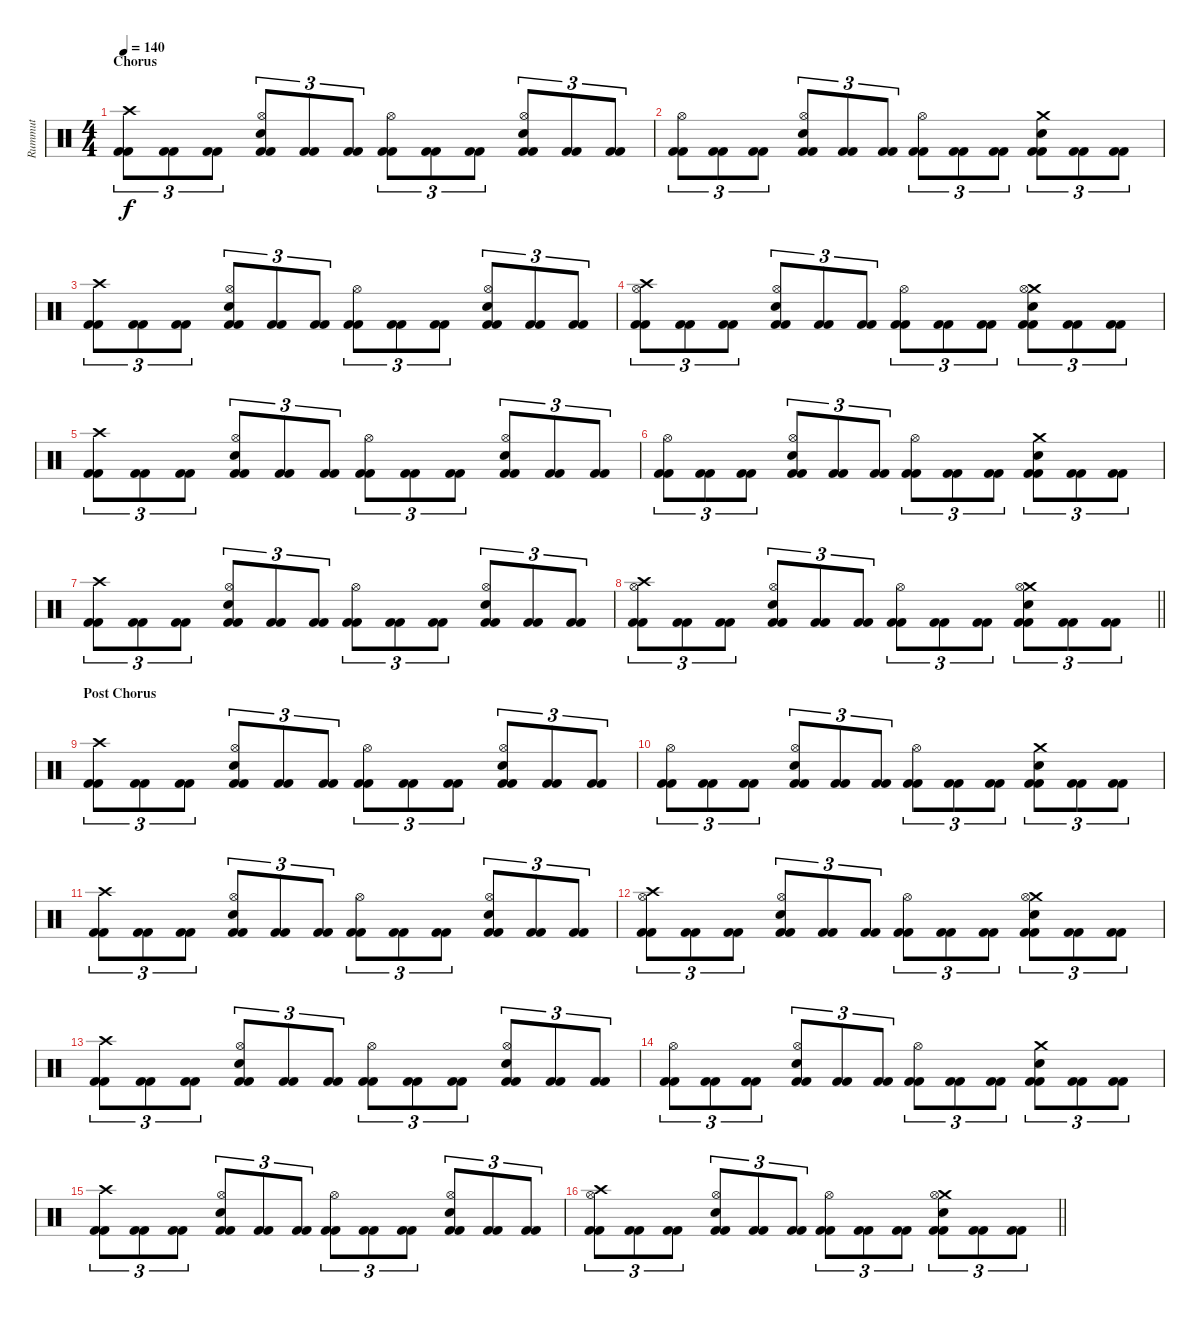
\track ("Rummut" "Rummut") {instrument percussion}
\staff {score}
\articulation defaults
\ts (4 4)
\section ("" "Chorus")
\tempo 140
\clef neutral
\ks c
("Crash high (hit)" "Kick (hit) 2" "Kick (hit) 2").8{tu (3 2) dy f} ("Kick (hit) 2" "Kick (hit) 2").8{tu (3 2)} ("Kick (hit) 2" "Kick (hit) 2").8{tu (3 2)} ("Hi-Hat (open)" "Electric Snare (hit)" "Kick (hit) 2" "Kick (hit) 2").8{tu (3 2)} ("Kick (hit) 2" "Kick (hit) 2").8{tu (3 2)} ("Kick (hit) 2" "Kick (hit) 2").8{tu (3 2)} ("Hi-Hat (open)" "Kick (hit) 2" "Kick (hit) 2").8{tu (3 2)} ("Kick (hit) 2" "Kick (hit) 2").8{tu (3 2)} ("Kick (hit) 2" "Kick (hit) 2").8{tu (3 2)} ("Hi-Hat (open)" "Electric Snare (hit)" "Kick (hit) 2" "Kick (hit) 2").8{tu (3 2)} ("Kick (hit) 2" "Kick (hit) 2").8{tu (3 2)} ("Kick (hit) 2" "Kick (hit) 2").8{tu (3 2)} |
("Hi-Hat (open)" "Kick (hit) 2" "Kick (hit) 2").8{tu (3 2)} ("Kick (hit) 2" "Kick (hit) 2").8{tu (3 2)} ("Kick (hit) 2" "Kick (hit) 2").8{tu (3 2)} ("Hi-Hat (open)" "Electric Snare (hit)" "Kick (hit) 2" "Kick (hit) 2").8{tu (3 2)} ("Kick (hit) 2" "Kick (hit) 2").8{tu (3 2)} ("Kick (hit) 2" "Kick (hit) 2").8{tu (3 2)} ("Hi-Hat (open)" "Kick (hit) 2" "Kick (hit) 2").8{tu (3 2)} ("Kick (hit) 2" "Kick (hit) 2").8{tu (3 2)} ("Kick (hit) 2" "Kick (hit) 2").8{tu (3 2)} ("Crash medium (hit)" "Electric Snare (hit)" "Kick (hit) 2" "Kick (hit) 2").8{tu (3 2)} ("Kick (hit) 2" "Kick (hit) 2").8{tu (3 2)} ("Kick (hit) 2" "Kick (hit) 2").8{tu (3 2)} |
("Crash high (hit)" "Kick (hit) 2" "Kick (hit) 2").8{tu (3 2)} ("Kick (hit) 2" "Kick (hit) 2").8{tu (3 2)} ("Kick (hit) 2" "Kick (hit) 2").8{tu (3 2)} ("Hi-Hat (open)" "Electric Snare (hit)" "Kick (hit) 2" "Kick (hit) 2").8{tu (3 2)} ("Kick (hit) 2" "Kick (hit) 2").8{tu (3 2)} ("Kick (hit) 2" "Kick (hit) 2").8{tu (3 2)} ("Hi-Hat (open)" "Kick (hit) 2" "Kick (hit) 2").8{tu (3 2)} ("Kick (hit) 2" "Kick (hit) 2").8{tu (3 2)} ("Kick (hit) 2" "Kick (hit) 2").8{tu (3 2)} ("Hi-Hat (open)" "Electric Snare (hit)" "Kick (hit) 2" "Kick (hit) 2").8{tu (3 2)} ("Kick (hit) 2" "Kick (hit) 2").8{tu (3 2)} ("Kick (hit) 2" "Kick (hit) 2").8{tu (3 2)} |
("Crash high (hit)" "Hi-Hat (open)" "Kick (hit) 2" "Kick (hit) 2").8{tu (3 2)} ("Kick (hit) 2" "Kick (hit) 2").8{tu (3 2)} ("Kick (hit) 2" "Kick (hit) 2").8{tu (3 2)} ("Hi-Hat (open)" "Electric Snare (hit)" "Kick (hit) 2" "Kick (hit) 2").8{tu (3 2)} ("Kick (hit) 2" "Kick (hit) 2").8{tu (3 2)} ("Kick (hit) 2" "Kick (hit) 2").8{tu (3 2)} ("Hi-Hat (open)" "Kick (hit) 2" "Kick (hit) 2").8{tu (3 2)} ("Kick (hit) 2" "Kick (hit) 2").8{tu (3 2)} ("Kick (hit) 2" "Kick (hit) 2").8{tu (3 2)} ("Crash medium (hit)" "Hi-Hat (open)" "Electric Snare (hit)" "Kick (hit) 2" "Kick (hit) 2").8{tu (3 2)} ("Kick (hit) 2" "Kick (hit) 2").8{tu (3 2)} ("Kick (hit) 2" "Kick (hit) 2").8{tu (3 2)} |
("Crash high (hit)" "Kick (hit) 2" "Kick (hit) 2").8{tu (3 2)} ("Kick (hit) 2" "Kick (hit) 2").8{tu (3 2)} ("Kick (hit) 2" "Kick (hit) 2").8{tu (3 2)} ("Hi-Hat (open)" "Electric Snare (hit)" "Kick (hit) 2" "Kick (hit) 2").8{tu (3 2)} ("Kick (hit) 2" "Kick (hit) 2").8{tu (3 2)} ("Kick (hit) 2" "Kick (hit) 2").8{tu (3 2)} ("Hi-Hat (open)" "Kick (hit) 2" "Kick (hit) 2").8{tu (3 2)} ("Kick (hit) 2" "Kick (hit) 2").8{tu (3 2)} ("Kick (hit) 2" "Kick (hit) 2").8{tu (3 2)} ("Hi-Hat (open)" "Electric Snare (hit)" "Kick (hit) 2" "Kick (hit) 2").8{tu (3 2)} ("Kick (hit) 2" "Kick (hit) 2").8{tu (3 2)} ("Kick (hit) 2" "Kick (hit) 2").8{tu (3 2)} |
("Hi-Hat (open)" "Kick (hit) 2" "Kick (hit) 2").8{tu (3 2)} ("Kick (hit) 2" "Kick (hit) 2").8{tu (3 2)} ("Kick (hit) 2" "Kick (hit) 2").8{tu (3 2)} ("Hi-Hat (open)" "Electric Snare (hit)" "Kick (hit) 2" "Kick (hit) 2").8{tu (3 2)} ("Kick (hit) 2" "Kick (hit) 2").8{tu (3 2)} ("Kick (hit) 2" "Kick (hit) 2").8{tu (3 2)} ("Hi-Hat (open)" "Kick (hit) 2" "Kick (hit) 2").8{tu (3 2)} ("Kick (hit) 2" "Kick (hit) 2").8{tu (3 2)} ("Kick (hit) 2" "Kick (hit) 2").8{tu (3 2)} ("Crash medium (hit)" "Electric Snare (hit)" "Kick (hit) 2" "Kick (hit) 2").8{tu (3 2)} ("Kick (hit) 2" "Kick (hit) 2").8{tu (3 2)} ("Kick (hit) 2" "Kick (hit) 2").8{tu (3 2)} |
("Crash high (hit)" "Kick (hit) 2" "Kick (hit) 2").8{tu (3 2)} ("Kick (hit) 2" "Kick (hit) 2").8{tu (3 2)} ("Kick (hit) 2" "Kick (hit) 2").8{tu (3 2)} ("Hi-Hat (open)" "Electric Snare (hit)" "Kick (hit) 2" "Kick (hit) 2").8{tu (3 2)} ("Kick (hit) 2" "Kick (hit) 2").8{tu (3 2)} ("Kick (hit) 2" "Kick (hit) 2").8{tu (3 2)} ("Hi-Hat (open)" "Kick (hit) 2" "Kick (hit) 2").8{tu (3 2)} ("Kick (hit) 2" "Kick (hit) 2").8{tu (3 2)} ("Kick (hit) 2" "Kick (hit) 2").8{tu (3 2)} ("Hi-Hat (open)" "Electric Snare (hit)" "Kick (hit) 2" "Kick (hit) 2").8{tu (3 2)} ("Kick (hit) 2" "Kick (hit) 2").8{tu (3 2)} ("Kick (hit) 2" "Kick (hit) 2").8{tu (3 2)} |
\barLineRight lightlight
("Crash high (hit)" "Hi-Hat (open)" "Kick (hit) 2" "Kick (hit) 2").8{tu (3 2)} ("Kick (hit) 2" "Kick (hit) 2").8{tu (3 2)} ("Kick (hit) 2" "Kick (hit) 2").8{tu (3 2)} ("Hi-Hat (open)" "Electric Snare (hit)" "Kick (hit) 2" "Kick (hit) 2").8{tu (3 2)} ("Kick (hit) 2" "Kick (hit) 2").8{tu (3 2)} ("Kick (hit) 2" "Kick (hit) 2").8{tu (3 2)} ("Hi-Hat (open)" "Kick (hit) 2" "Kick (hit) 2").8{tu (3 2)} ("Kick (hit) 2" "Kick (hit) 2").8{tu (3 2)} ("Kick (hit) 2" "Kick (hit) 2").8{tu (3 2)} ("Crash medium (hit)" "Hi-Hat (open)" "Electric Snare (hit)" "Kick (hit) 2" "Kick (hit) 2").8{tu (3 2)} ("Kick (hit) 2" "Kick (hit) 2").8{tu (3 2)} ("Kick (hit) 2" "Kick (hit) 2").8{tu (3 2)} |
\section ("" "Post Chorus")
("Crash high (hit)" "Kick (hit) 2" "Kick (hit) 2").8{tu (3 2)} ("Kick (hit) 2" "Kick (hit) 2").8{tu (3 2)} ("Kick (hit) 2" "Kick (hit) 2").8{tu (3 2)} ("Hi-Hat (open)" "Electric Snare (hit)" "Kick (hit) 2" "Kick (hit) 2").8{tu (3 2)} ("Kick (hit) 2" "Kick (hit) 2").8{tu (3 2)} ("Kick (hit) 2" "Kick (hit) 2").8{tu (3 2)} ("Hi-Hat (open)" "Kick (hit) 2" "Kick (hit) 2").8{tu (3 2)} ("Kick (hit) 2" "Kick (hit) 2").8{tu (3 2)} ("Kick (hit) 2" "Kick (hit) 2").8{tu (3 2)} ("Hi-Hat (open)" "Electric Snare (hit)" "Kick (hit) 2" "Kick (hit) 2").8{tu (3 2)} ("Kick (hit) 2" "Kick (hit) 2").8{tu (3 2)} ("Kick (hit) 2" "Kick (hit) 2").8{tu (3 2)} |
("Hi-Hat (open)" "Kick (hit) 2" "Kick (hit) 2").8{tu (3 2)} ("Kick (hit) 2" "Kick (hit) 2").8{tu (3 2)} ("Kick (hit) 2" "Kick (hit) 2").8{tu (3 2)} ("Hi-Hat (open)" "Electric Snare (hit)" "Kick (hit) 2" "Kick (hit) 2").8{tu (3 2)} ("Kick (hit) 2" "Kick (hit) 2").8{tu (3 2)} ("Kick (hit) 2" "Kick (hit) 2").8{tu (3 2)} ("Hi-Hat (open)" "Kick (hit) 2" "Kick (hit) 2").8{tu (3 2)} ("Kick (hit) 2" "Kick (hit) 2").8{tu (3 2)} ("Kick (hit) 2" "Kick (hit) 2").8{tu (3 2)} ("Crash medium (hit)" "Electric Snare (hit)" "Kick (hit) 2" "Kick (hit) 2").8{tu (3 2)} ("Kick (hit) 2" "Kick (hit) 2").8{tu (3 2)} ("Kick (hit) 2" "Kick (hit) 2").8{tu (3 2)} |
("Crash high (hit)" "Kick (hit) 2" "Kick (hit) 2").8{tu (3 2)} ("Kick (hit) 2" "Kick (hit) 2").8{tu (3 2)} ("Kick (hit) 2" "Kick (hit) 2").8{tu (3 2)} ("Hi-Hat (open)" "Electric Snare (hit)" "Kick (hit) 2" "Kick (hit) 2").8{tu (3 2)} ("Kick (hit) 2" "Kick (hit) 2").8{tu (3 2)} ("Kick (hit) 2" "Kick (hit) 2").8{tu (3 2)} ("Hi-Hat (open)" "Kick (hit) 2" "Kick (hit) 2").8{tu (3 2)} ("Kick (hit) 2" "Kick (hit) 2").8{tu (3 2)} ("Kick (hit) 2" "Kick (hit) 2").8{tu (3 2)} ("Hi-Hat (open)" "Electric Snare (hit)" "Kick (hit) 2" "Kick (hit) 2").8{tu (3 2)} ("Kick (hit) 2" "Kick (hit) 2").8{tu (3 2)} ("Kick (hit) 2" "Kick (hit) 2").8{tu (3 2)} |
("Crash high (hit)" "Hi-Hat (open)" "Kick (hit) 2" "Kick (hit) 2").8{tu (3 2)} ("Kick (hit) 2" "Kick (hit) 2").8{tu (3 2)} ("Kick (hit) 2" "Kick (hit) 2").8{tu (3 2)} ("Hi-Hat (open)" "Electric Snare (hit)" "Kick (hit) 2" "Kick (hit) 2").8{tu (3 2)} ("Kick (hit) 2" "Kick (hit) 2").8{tu (3 2)} ("Kick (hit) 2" "Kick (hit) 2").8{tu (3 2)} ("Hi-Hat (open)" "Kick (hit) 2" "Kick (hit) 2").8{tu (3 2)} ("Kick (hit) 2" "Kick (hit) 2").8{tu (3 2)} ("Kick (hit) 2" "Kick (hit) 2").8{tu (3 2)} ("Crash medium (hit)" "Hi-Hat (open)" "Electric Snare (hit)" "Kick (hit) 2" "Kick (hit) 2").8{tu (3 2)} ("Kick (hit) 2" "Kick (hit) 2").8{tu (3 2)} ("Kick (hit) 2" "Kick (hit) 2").8{tu (3 2)} |
("Crash high (hit)" "Kick (hit) 2" "Kick (hit) 2").8{tu (3 2)} ("Kick (hit) 2" "Kick (hit) 2").8{tu (3 2)} ("Kick (hit) 2" "Kick (hit) 2").8{tu (3 2)} ("Hi-Hat (open)" "Electric Snare (hit)" "Kick (hit) 2" "Kick (hit) 2").8{tu (3 2)} ("Kick (hit) 2" "Kick (hit) 2").8{tu (3 2)} ("Kick (hit) 2" "Kick (hit) 2").8{tu (3 2)} ("Hi-Hat (open)" "Kick (hit) 2" "Kick (hit) 2").8{tu (3 2)} ("Kick (hit) 2" "Kick (hit) 2").8{tu (3 2)} ("Kick (hit) 2" "Kick (hit) 2").8{tu (3 2)} ("Hi-Hat (open)" "Electric Snare (hit)" "Kick (hit) 2" "Kick (hit) 2").8{tu (3 2)} ("Kick (hit) 2" "Kick (hit) 2").8{tu (3 2)} ("Kick (hit) 2" "Kick (hit) 2").8{tu (3 2)} |
("Hi-Hat (open)" "Kick (hit) 2" "Kick (hit) 2").8{tu (3 2)} ("Kick (hit) 2" "Kick (hit) 2").8{tu (3 2)} ("Kick (hit) 2" "Kick (hit) 2").8{tu (3 2)} ("Hi-Hat (open)" "Electric Snare (hit)" "Kick (hit) 2" "Kick (hit) 2").8{tu (3 2)} ("Kick (hit) 2" "Kick (hit) 2").8{tu (3 2)} ("Kick (hit) 2" "Kick (hit) 2").8{tu (3 2)} ("Hi-Hat (open)" "Kick (hit) 2" "Kick (hit) 2").8{tu (3 2)} ("Kick (hit) 2" "Kick (hit) 2").8{tu (3 2)} ("Kick (hit) 2" "Kick (hit) 2").8{tu (3 2)} ("Crash medium (hit)" "Electric Snare (hit)" "Kick (hit) 2" "Kick (hit) 2").8{tu (3 2)} ("Kick (hit) 2" "Kick (hit) 2").8{tu (3 2)} ("Kick (hit) 2" "Kick (hit) 2").8{tu (3 2)} |
("Crash high (hit)" "Kick (hit) 2" "Kick (hit) 2").8{tu (3 2)} ("Kick (hit) 2" "Kick (hit) 2").8{tu (3 2)} ("Kick (hit) 2" "Kick (hit) 2").8{tu (3 2)} ("Hi-Hat (open)" "Electric Snare (hit)" "Kick (hit) 2" "Kick (hit) 2").8{tu (3 2)} ("Kick (hit) 2" "Kick (hit) 2").8{tu (3 2)} ("Kick (hit) 2" "Kick (hit) 2").8{tu (3 2)} ("Hi-Hat (open)" "Kick (hit) 2" "Kick (hit) 2").8{tu (3 2)} ("Kick (hit) 2" "Kick (hit) 2").8{tu (3 2)} ("Kick (hit) 2" "Kick (hit) 2").8{tu (3 2)} ("Hi-Hat (open)" "Electric Snare (hit)" "Kick (hit) 2" "Kick (hit) 2").8{tu (3 2)} ("Kick (hit) 2" "Kick (hit) 2").8{tu (3 2)} ("Kick (hit) 2" "Kick (hit) 2").8{tu (3 2)} |
\barLineRight lightlight
("Crash high (hit)" "Hi-Hat (open)" "Kick (hit) 2" "Kick (hit) 2").8{tu (3 2)} ("Kick (hit) 2" "Kick (hit) 2").8{tu (3 2)} ("Kick (hit) 2" "Kick (hit) 2").8{tu (3 2)} ("Hi-Hat (open)" "Electric Snare (hit)" "Kick (hit) 2" "Kick (hit) 2").8{tu (3 2)} ("Kick (hit) 2" "Kick (hit) 2").8{tu (3 2)} ("Kick (hit) 2" "Kick (hit) 2").8{tu (3 2)} ("Hi-Hat (open)" "Kick (hit) 2" "Kick (hit) 2").8{tu (3 2)} ("Kick (hit) 2" "Kick (hit) 2").8{tu (3 2)} ("Kick (hit) 2" "Kick (hit) 2").8{tu (3 2)} ("Crash medium (hit)" "Hi-Hat (open)" "Electric Snare (hit)" "Kick (hit) 2" "Kick (hit) 2").8{tu (3 2)} ("Kick (hit) 2" "Kick (hit) 2").8{tu (3 2)} ("Kick (hit) 2" "Kick (hit) 2").8{tu (3 2)}
